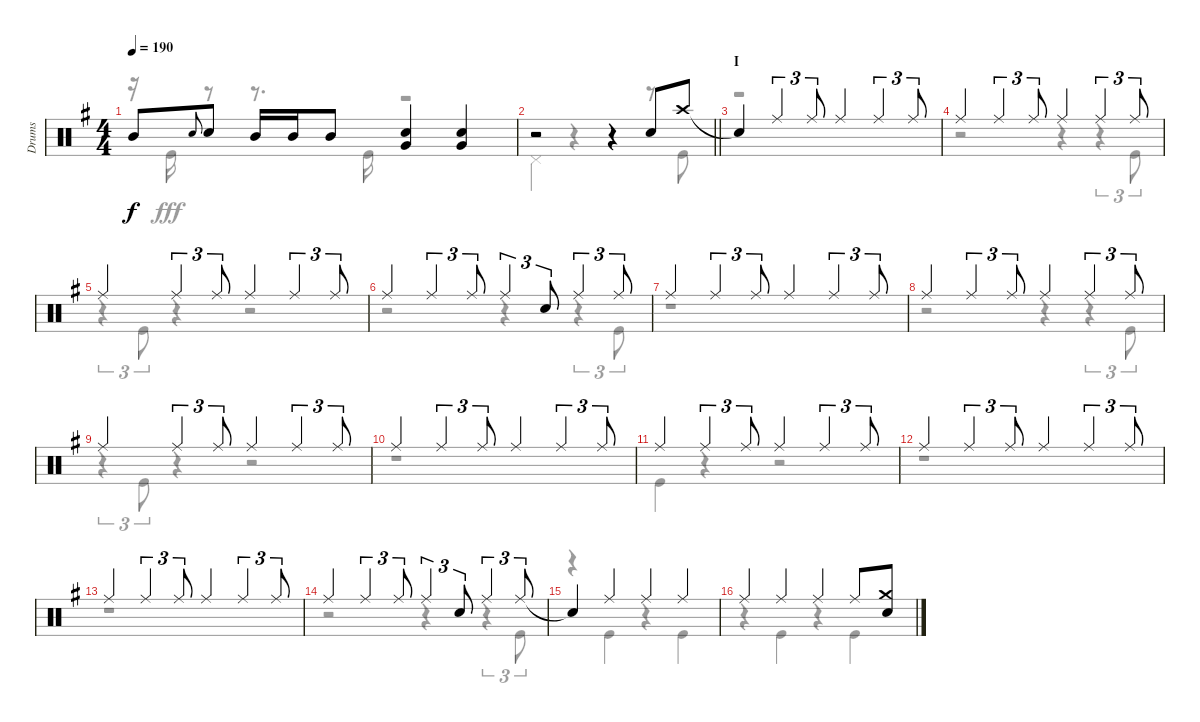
\track ("Drums" "Drums") {instrument percussion}
\staff {score}
\articulation defaults
\voice
\ts (4 4)
\tempo 190
\clef neutral
\ks g "Mid Tom (hit)".8{dy f} "Snare (hit) 2".8{gr onbeat} "Snare (hit) 2".8 "Mid Tom (hit)".16 "Mid Tom (hit)".16 "Mid Tom (hit)".8
("Snare (hit) 2" "Very Low Tom (hit)").4 ("Snare (hit) 2" "Very Low Tom (hit)").4 |
\barLineRight lightlight
r.2 r.4 "Snare (hit) 2".8 "Crash high (hit)".8 |
\section ("" "I")
"Snare (hit)"{t}.4 "Ride (middle)".4{tu (3 2)} "Ride (middle)".8{tu (3 2)} "Ride (middle)".4 "Ride (middle)".4{tu (3 2)} "Ride (middle)".8{tu (3 2)} |
"Ride (middle)".4 "Ride (middle)".4{tu (3 2)} "Ride (middle)".8{tu (3 2)} "Ride (middle)".4 "Ride (middle)".4{tu (3 2)} "Ride (middle)".8{tu (3 2)} |
"Ride (middle)".4 "Ride (middle)".4{tu (3 2)} "Ride (middle)".8{tu (3 2)} "Ride (middle)".4 "Ride (middle)".4{tu (3 2)} "Ride (middle)".8{tu (3 2)} |
"Ride (middle)".4 "Ride (middle)".4{tu (3 2)} "Ride (middle)".8{tu (3 2)} "Ride (middle)".4{tu (3 2)} "Snare (hit) 2".8{tu (3 2)} "Ride (middle)".4{tu (3 2)} "Ride (middle)".8{tu (3 2)} |
"Ride (middle)".4 "Ride (middle)".4{tu (3 2)} "Ride (middle)".8{tu (3 2)} "Ride (middle)".4 "Ride (middle)".4{tu (3 2)} "Ride (middle)".8{tu (3 2)} |
"Ride (middle)".4 "Ride (middle)".4{tu (3 2)} "Ride (middle)".8{tu (3 2)} "Ride (middle)".4 "Ride (middle)".4{tu (3 2)} "Ride (middle)".8{tu (3 2)} |
"Ride (middle)".4 "Ride (middle)".4{tu (3 2)} "Ride (middle)".8{tu (3 2)} "Ride (middle)".4 "Ride (middle)".4{tu (3 2)} "Ride (middle)".8{tu (3 2)} |
"Ride (middle)".4 "Ride (middle)".4{tu (3 2)} "Ride (middle)".8{tu (3 2)} "Ride (middle)".4 "Ride (middle)".4{tu (3 2)} "Ride (middle)".8{tu (3 2)} |
"Ride (middle)".4 "Ride (middle)".4{tu (3 2)} "Ride (middle)".8{tu (3 2)} "Ride (middle)".4 "Ride (middle)".4{tu (3 2)} "Ride (middle)".8{tu (3 2)} |
"Ride (middle)".4 "Ride (middle)".4{tu (3 2)} "Ride (middle)".8{tu (3 2)} "Ride (middle)".4 "Ride (middle)".4{tu (3 2)} "Ride (middle)".8{tu (3 2)} |
"Ride (middle)".4 "Ride (middle)".4{tu (3 2)} "Ride (middle)".8{tu (3 2)} "Ride (middle)".4 "Ride (middle)".4{tu (3 2)} "Ride (middle)".8{tu (3 2)} |
"Ride (middle)".4 "Ride (middle)".4{tu (3 2)} "Ride (middle)".8{tu (3 2)} "Ride (middle)".4{tu (3 2)} "Snare (hit) 2".8{tu (3 2)} "Ride (middle)".4{tu (3 2)} "Ride (middle)".8{tu (3 2)} |
"Snare (hit)"{t}.4 "Ride (middle)".4 "Ride (middle)".4 "Ride (middle)".4 |
"Ride (middle)".4 "Ride (middle)".4 "Ride (middle)".4 "Ride (middle)".8 ("Crash medium (hit)" "Snare (hit) 2").8
\voice
\clef neutral
\ottava regular
\simile none
\ks g
r.16{dy fff} "Kick (hit)".16 r.8 r.8{d} "Kick (hit)".16 r.2 |
\barLineRight lightlight "Pedal Hi-Hat (hit)".4
r.4 r.4 r.8 "Kick (hit)".8 |
r.1 |
r.2 r.4 r.4{tu (3 2)} "Kick (hit)".8{tu (3 2)} |
r.4{tu (3 2)} "Kick (hit)".8{tu (3 2)} r.4 r.2 |
r.2 r.4 r.4{tu (3 2)} "Kick (hit)".8{tu (3 2)} |
r.1 |
r.2 r.4 r.4{tu (3 2)} "Kick (hit)".8{tu (3 2)} |
r.4{tu (3 2)} "Kick (hit)".8{tu (3 2)} r.4 r.2 |
r.1 |
"Kick (hit)".4 r.4 r.2 |
r.1 |
r.1 |
r.2 r.4 r.4{tu (3 2)} "Kick (hit)".8{tu (3 2)} |
r.4 "Kick (hit)".4 r.4 "Kick (hit)".4 |
r.4 "Kick (hit)".4 r.4 "Kick (hit)".4
